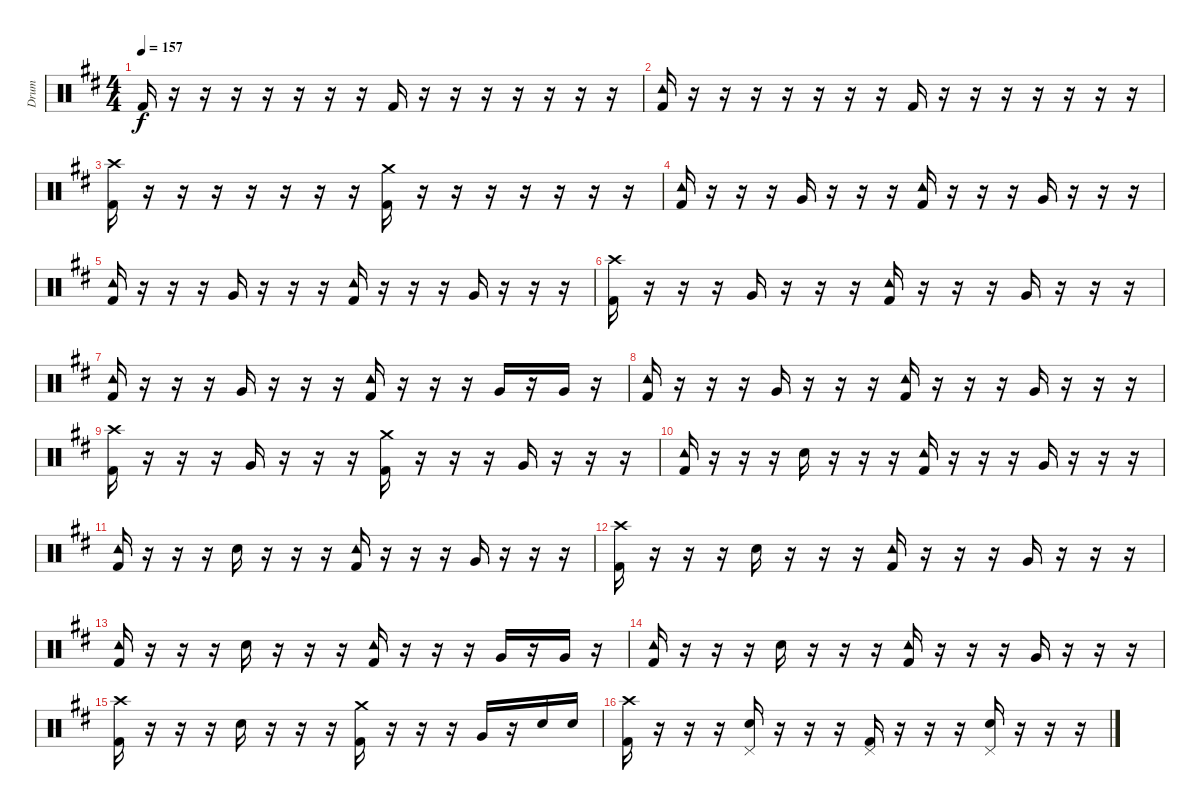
\track ("Drum" "Drum") {instrument percussion}
\staff {score}
\articulation defaults
\ts (4 4)
\tempo 157
\clef neutral
\ks d "Kick (hit) 2".16{dy f}
r.16 r.16 r.16 r.16 r.16 r.16 r.16 "Kick (hit) 2".16 r.16 r.16 r.16 r.16 r.16 r.16 r.16 |
("Kick (hit) 2" "Tambourine (hit)").16 r.16 r.16 r.16 r.16 r.16 r.16 r.16 "Kick (hit) 2".16 r.16 r.16 r.16 r.16 r.16 r.16 r.16 |
("Kick (hit) 2" "Crash high (hit)").16 r.16 r.16 r.16 r.16 r.16 r.16 r.16 ("Kick (hit) 2" "Crash medium (hit)").16 r.16 r.16 r.16 r.16 r.16 r.16 r.16 |
("Kick (hit) 2" "Tambourine (hit)").16 r.16 r.16 r.16 "Very Low Tom (hit)".16 r.16 r.16 r.16 ("Kick (hit) 2" "Tambourine (hit)").16 r.16 r.16 r.16 "Very Low Tom (hit)".16 r.16 r.16 r.16 |
("Kick (hit) 2" "Tambourine (hit)").16 r.16 r.16 r.16 "Very Low Tom (hit)".16 r.16 r.16 r.16 ("Kick (hit) 2" "Tambourine (hit)").16 r.16 r.16 r.16 "Very Low Tom (hit)".16 r.16 r.16 r.16 |
("Kick (hit) 2" "Crash high (hit)").16 r.16 r.16 r.16 "Very Low Tom (hit)".16 r.16 r.16 r.16 ("Kick (hit) 2" "Tambourine (hit)").16 r.16 r.16 r.16 "Very Low Tom (hit)".16 r.16 r.16 r.16 |
("Kick (hit) 2" "Tambourine (hit)").16 r.16 r.16 r.16 "Very Low Tom (hit)".16 r.16 r.16 r.16 ("Kick (hit) 2" "Tambourine (hit)").16 r.16 r.16 r.16 "Very Low Tom (hit)".16 r.16 "Very Low Tom (hit)".16 r.16 |
("Kick (hit) 2" "Tambourine (hit)").16 r.16 r.16 r.16 "Very Low Tom (hit)".16 r.16 r.16 r.16 ("Kick (hit) 2" "Tambourine (hit)").16 r.16 r.16 r.16 "Very Low Tom (hit)".16 r.16 r.16 r.16 |
("Kick (hit) 2" "Crash high (hit)").16 r.16 r.16 r.16 "Very Low Tom (hit)".16 r.16 r.16 r.16 ("Kick (hit) 2" "Crash medium (hit)").16 r.16 r.16 r.16 "Very Low Tom (hit)".16 r.16 r.16 r.16 |
("Kick (hit) 2" "Tambourine (hit)").16 r.16 r.16 r.16 "Electric Snare (hit)".16 r.16 r.16 r.16 ("Kick (hit) 2" "Tambourine (hit)").16 r.16 r.16 r.16 "Very Low Tom (hit)".16 r.16 r.16 r.16 |
("Kick (hit) 2" "Tambourine (hit)").16 r.16 r.16 r.16 "Electric Snare (hit)".16 r.16 r.16 r.16 ("Kick (hit) 2" "Tambourine (hit)").16 r.16 r.16 r.16 "Very Low Tom (hit)".16 r.16 r.16 r.16 |
("Kick (hit) 2" "Crash high (hit)").16 r.16 r.16 r.16 "Electric Snare (hit)".16 r.16 r.16 r.16 ("Kick (hit) 2" "Tambourine (hit)").16 r.16 r.16 r.16 "Very Low Tom (hit)".16 r.16 r.16 r.16 |
("Kick (hit) 2" "Tambourine (hit)").16 r.16 r.16 r.16 "Electric Snare (hit)".16 r.16 r.16 r.16 ("Kick (hit) 2" "Tambourine (hit)").16 r.16 r.16 r.16 "Very Low Tom (hit)".16 r.16 "Very Low Tom (hit)".16 r.16 |
("Kick (hit) 2" "Tambourine (hit)").16 r.16 r.16 r.16 "Electric Snare (hit)".16 r.16 r.16 r.16 ("Kick (hit) 2" "Tambourine (hit)").16 r.16 r.16 r.16 "Very Low Tom (hit)".16 r.16 r.16 r.16 |
("Kick (hit) 2" "Crash high (hit)").16 r.16 r.16 r.16 "Electric Snare (hit)".16 r.16 r.16 r.16 ("Kick (hit) 2" "Crash medium (hit)").16 r.16 r.16 r.16 "Very Low Tom (hit)".16 r.16 "Electric Snare (hit)".16 "Electric Snare (hit)".16 |
("Kick (hit) 2" "Crash high (hit)").16 r.16 r.16 r.16 ("Electric Snare (hit)" "Pedal Hi-Hat (hit)").16 r.16 r.16 r.16 ("Kick (hit) 2" "Pedal Hi-Hat (hit)").16 r.16 r.16 r.16 ("Electric Snare (hit)" "Pedal Hi-Hat (hit)").16 r.16 r.16 r.16
